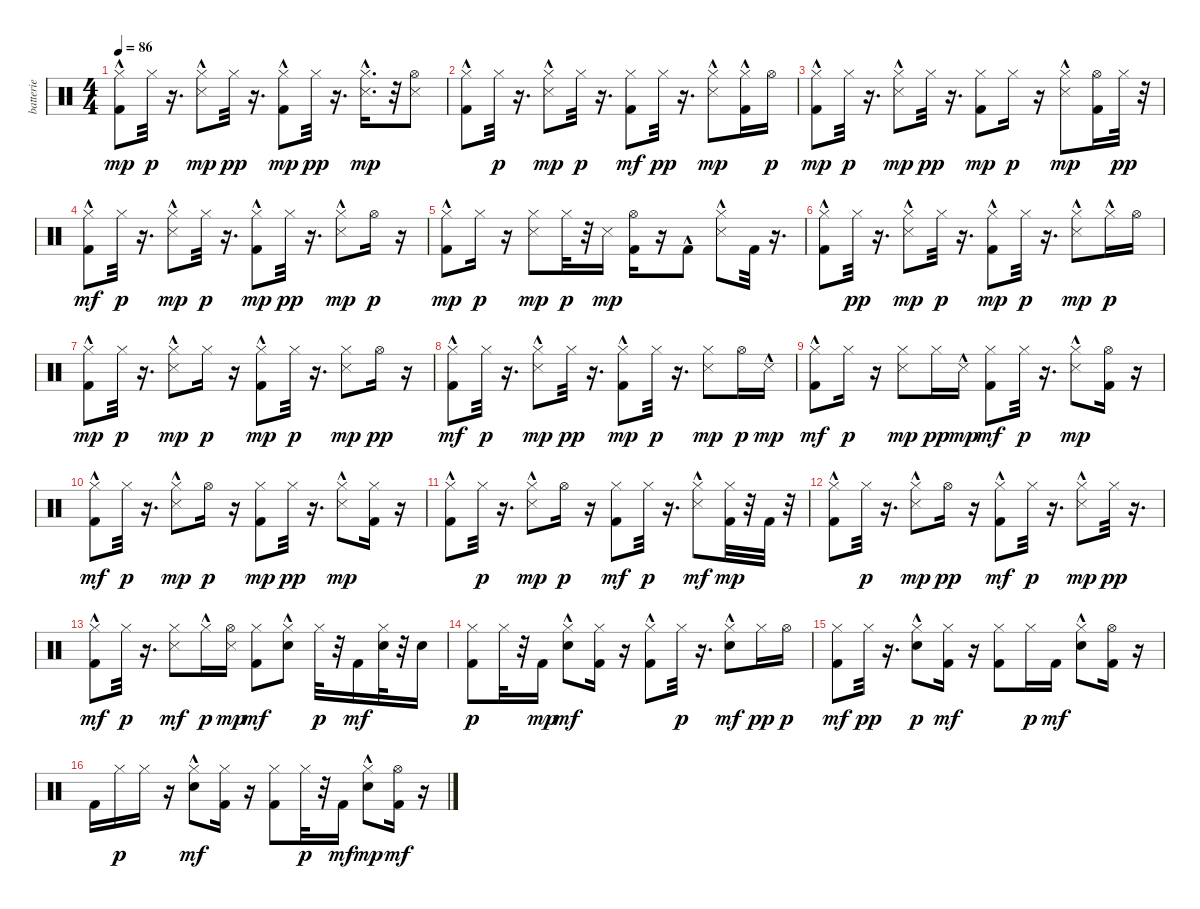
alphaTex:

\track ("batterie" "batterie") {instrument percussion}
\staff {score}
\articulation defaults
\ts (4 4)
\tempo 86
\clef neutral
\ks c
("Hi-Hat (closed)" "Kick (hit) 2"{hac}).8{dy mp} "Hi-Hat (closed)".32{dy p} r.16{d} ("Hi-Hat (closed)" "Snare (side stick) 3"{hac}).8{dy mp} "Hi-Hat (closed)".32{dy pp} r.16{d} ("Hi-Hat (closed)" "Kick (hit) 2"{hac}).8{dy mp} "Hi-Hat (closed)".32{dy pp} r.16{d} ("Hi-Hat (closed)" "Snare (side stick) 3"{hac}).16{d dy mp} r.32 ("Hi-Hat (open)" "Snare (side stick) 3").8 |
("Hi-Hat (closed)" "Kick (hit) 2"{hac}).8 "Hi-Hat (closed)".32{dy p} r.16{d} ("Hi-Hat (closed)" "Snare (side stick) 3"{hac}).8{dy mp} "Hi-Hat (closed)".32{dy p} r.16{d} ("Hi-Hat (closed)" "Kick (hit) 2").8{dy mf} "Hi-Hat (closed)".32{dy pp} r.16{d} ("Hi-Hat (closed)" "Snare (side stick) 3"{hac}).8{dy mp} ("Hi-Hat (closed)"{hac} "Kick (hit) 2").16 "Hi-Hat (open)".16{dy p} |
("Hi-Hat (closed)" "Kick (hit) 2"{hac}).8{dy mp} "Hi-Hat (closed)".32{dy p} r.16{d} ("Hi-Hat (closed)" "Snare (side stick) 3"{hac}).8{dy mp} "Hi-Hat (closed)".32{dy pp} r.16{d} ("Hi-Hat (closed)" "Kick (hit) 2").8{dy mp} "Hi-Hat (closed)".16{dy p} r.16 ("Hi-Hat (closed)" "Snare (side stick) 3"{hac}).8{dy mp} ("Hi-Hat (open)" "Kick (hit) 2").16 "Hi-Hat (closed)".32{dy pp} r.32 |
("Hi-Hat (closed)" "Kick (hit) 2"{hac}).8{dy mf} "Hi-Hat (closed)".32{dy p} r.16{d} ("Hi-Hat (closed)" "Snare (side stick) 3"{hac}).8{dy mp} "Hi-Hat (closed)".32{dy p} r.16{d} ("Hi-Hat (closed)" "Kick (hit) 2"{hac}).8{dy mp} "Hi-Hat (closed)".32{dy pp} r.16{d} ("Hi-Hat (closed)" "Snare (side stick) 3"{hac}).8{dy mp} "Hi-Hat (open)".16{dy p} r.16 |
("Hi-Hat (closed)" "Kick (hit) 2"{hac}).8{dy mp} "Hi-Hat (closed)".16{dy p} r.16 ("Hi-Hat (closed)" "Snare (side stick) 3").8{dy mp} "Hi-Hat (closed)".32{dy p} r.32 "Snare (side stick) 3".16{dy mp} ("Hi-Hat (open)" "Kick (hit) 2").16 r.16 "Kick (hit) 2"{hac}.8 ("Hi-Hat (closed)" "Snare (side stick) 3"{hac}).8 "Kick (hit) 2".32 r.16{d} |
("Hi-Hat (closed)" "Kick (hit) 2"{hac}).8 "Hi-Hat (closed)".32{dy pp} r.16{d} ("Hi-Hat (closed)" "Snare (side stick) 3"{hac}).8{dy mp} "Hi-Hat (closed)".32{dy p} r.16{d} ("Hi-Hat (closed)" "Kick (hit) 2"{hac}).8{dy mp} "Hi-Hat (closed)".32{dy p} r.16{d} ("Hi-Hat (closed)" "Snare (side stick) 3"{hac}).8{dy mp} "Hi-Hat (closed)"{hac}.16{dy p} "Hi-Hat (open)".16 |
("Hi-Hat (closed)"{hac} "Kick (hit) 2"{hac}).8{dy mp} "Hi-Hat (closed)".32{dy p} r.16{d} ("Hi-Hat (closed)" "Snare (side stick) 3"{hac}).8{dy mp} "Hi-Hat (closed)".16{dy p} r.16 ("Hi-Hat (closed)" "Kick (hit) 2"{hac}).8{dy mp} "Hi-Hat (closed)".32{dy p} r.16{d} ("Hi-Hat (closed)" "Snare (side stick) 3").8{dy mp} "Hi-Hat (open)".16{dy pp} r.16 |
("Hi-Hat (closed)" "Kick (hit) 2"{hac}).8{dy mf} "Hi-Hat (closed)".32{dy p} r.16{d} ("Hi-Hat (closed)" "Snare (side stick) 3"{hac}).8{dy mp} "Hi-Hat (closed)".32{dy pp} r.16{d} ("Hi-Hat (closed)" "Kick (hit) 2"{hac}).8{dy mp} "Hi-Hat (closed)".32{dy p} r.16{d} ("Hi-Hat (closed)" "Snare (side stick) 3").8{dy mp} "Hi-Hat (open)".16{dy p} "Snare (side stick) 3"{hac}.16{dy mp} |
("Hi-Hat (closed)" "Kick (hit) 2"{hac}).8{dy mf} "Hi-Hat (closed)".16{dy p} r.16 ("Hi-Hat (closed)" "Snare (side stick) 3").8{dy mp} "Hi-Hat (closed)".16{dy pp} "Snare (side stick) 3"{hac}.16{dy mp} ("Hi-Hat (closed)" "Kick (hit) 2").8{dy mf} "Hi-Hat (closed)".32{dy p} r.16{d} ("Hi-Hat (closed)" "Snare (side stick) 3"{hac}).8{dy mp} ("Hi-Hat (open)" "Kick (hit) 2").16 r.16 |
("Hi-Hat (closed)" "Kick (hit) 2"{hac}).8{dy mf} "Hi-Hat (closed)".32{dy p} r.16{d} ("Hi-Hat (closed)" "Snare (side stick) 3"{hac}).8{dy mp} "Hi-Hat (open)".16{dy p} r.16 ("Hi-Hat (closed)" "Kick (hit) 2").8{dy mp} "Hi-Hat (closed)".32{dy pp} r.16{d} ("Hi-Hat (closed)" "Snare (side stick) 3"{hac}).8{dy mp} ("Hi-Hat (closed)" "Kick (hit) 2").16 r.16 |
("Hi-Hat (closed)" "Kick (hit) 2"{hac}).8 "Hi-Hat (closed)".32{dy p} r.16{d} ("Hi-Hat (closed)" "Snare (side stick) 3"{hac}).8{dy mp} "Hi-Hat (open)".16{dy p} r.16 ("Hi-Hat (closed)" "Kick (hit) 2").8{dy mf} "Hi-Hat (closed)".32{dy p} r.16{d} ("Hi-Hat (closed)" "Snare (side stick) 3"{hac}).8{dy mf} ("Hi-Hat (closed)" "Kick (hit) 2").32{dy mp} r.32 "Kick (hit) 2".32 r.32 |
("Hi-Hat (closed)" "Kick (hit) 2"{hac}).8 "Hi-Hat (closed)".32{dy p} r.16{d} ("Hi-Hat (closed)" "Snare (side stick) 3"{hac}).8{dy mp} "Hi-Hat (open)".16{dy pp} r.16 ("Hi-Hat (closed)" "Kick (hit) 2"{hac}).8{dy mf} "Hi-Hat (closed)".32{dy p} r.16{d} ("Hi-Hat (closed)" "Snare (side stick) 3"{hac}).8{dy mp} "Hi-Hat (closed)".32{dy pp} r.16{d} |
("Hi-Hat (closed)" "Kick (hit) 2"{hac}).8{dy mf} "Hi-Hat (closed)".32{dy p} r.16{d} ("Hi-Hat (closed)" "Snare (side stick) 3").8{dy mf} "Hi-Hat (closed)"{hac}.16{dy p} ("Hi-Hat (open)" "Snare (side stick) 3").16{dy mp} ("Hi-Hat (closed)" "Kick (hit) 2").8{dy mf} ("Hi-Hat (closed)" "Snare (hit) 2"{hac}).8 "Hi-Hat (closed)".32{dy p} r.32 "Kick (hit) 2".16{dy mf} ("Hi-Hat (closed)" "Snare (hit) 2").32 r.32 "Snare (hit) 2".16 |
("Hi-Hat (closed)" "Kick (hit) 2").8{dy p} "Hi-Hat (closed)".32 r.32 "Kick (hit) 2".16{dy mp} ("Hi-Hat (closed)" "Snare (hit) 2"{hac}).8{dy mf} ("Hi-Hat (closed)" "Kick (hit) 2").16 r.16 ("Hi-Hat (closed)" "Kick (hit) 2"{hac}).8 "Hi-Hat (closed)".32{dy p} r.16{d} ("Hi-Hat (closed)" "Snare (hit) 2"{hac}).8{dy mf} "Hi-Hat (closed)".16{dy pp} "Hi-Hat (open)".16{dy p} |
("Hi-Hat (closed)" "Kick (hit) 2").8{dy mf} "Hi-Hat (closed)".32{dy pp} r.16{d} ("Hi-Hat (closed)" "Snare (hit) 2"{hac}).8{dy p} ("Hi-Hat (closed)" "Kick (hit) 2").16{dy mf} r.16 ("Hi-Hat (closed)" "Kick (hit) 2").8 "Hi-Hat (closed)".16{dy p} "Kick (hit) 2".16{dy mf} ("Hi-Hat (closed)" "Snare (hit) 2"{hac}).8 ("Hi-Hat (open)" "Kick (hit) 2").16 r.16 |
"Kick (hit) 2".16 "Hi-Hat (closed)".16{dy p} "Hi-Hat (closed)".16 r.16 ("Hi-Hat (closed)" "Snare (hit) 2"{hac}).8{dy mf} ("Hi-Hat (closed)" "Kick (hit) 2").16 r.16 ("Hi-Hat (closed)" "Kick (hit) 2").8 "Hi-Hat (closed)".32{dy p} r.32 "Kick (hit) 2".16{dy mf} ("Hi-Hat (closed)" "Snare (hit) 2"{hac}).8{dy mp} ("Hi-Hat (open)" "Kick (hit) 2").16{dy mf} r.16
